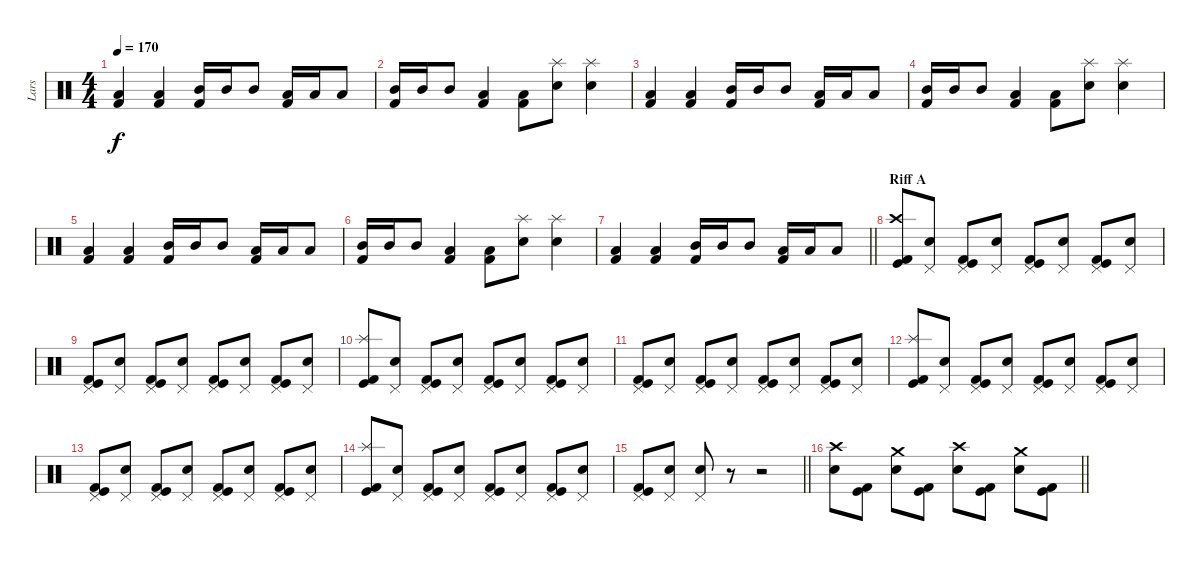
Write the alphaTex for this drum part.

\track ("Lars" "Lars") {instrument percussion}
\staff {score}
\articulation defaults
\ts (4 4)
\tempo 170
\clef neutral
\ks c
("Kick (hit) 2" "Low Tom (hit)").4{dy f} ("Kick (hit) 2" "Low Tom (hit)").4 ("Kick (hit) 2" "Mid Tom (hit)").16 "Mid Tom (hit)".16 "Mid Tom (hit)".8 ("Kick (hit) 2" "Low Tom (hit)").16 "Low Tom (hit)".16 "Low Tom (hit)".8 |
("Kick (hit) 2" "Mid Tom (hit)").16 "Mid Tom (hit)".16 "Mid Tom (hit)".8 ("Kick (hit) 2" "Low Tom (hit)").4 ("Kick (hit) 2" "Low Tom (hit)").8 ("Splash (hit)" "Electric Snare (hit)").8 ("Splash (hit)" "Electric Snare (hit)").4 |
("Kick (hit) 2" "Low Tom (hit)").4 ("Kick (hit) 2" "Low Tom (hit)").4 ("Kick (hit) 2" "Mid Tom (hit)").16 "Mid Tom (hit)".16 "Mid Tom (hit)".8 ("Kick (hit) 2" "Low Tom (hit)").16 "Low Tom (hit)".16 "Low Tom (hit)".8 |
("Kick (hit) 2" "Mid Tom (hit)").16 "Mid Tom (hit)".16 "Mid Tom (hit)".8 ("Kick (hit) 2" "Low Tom (hit)").4 ("Kick (hit) 2" "Low Tom (hit)").8 ("Splash (hit)" "Electric Snare (hit)").8 ("Splash (hit)" "Electric Snare (hit)").4 |
("Kick (hit) 2" "Low Tom (hit)").4 ("Kick (hit) 2" "Low Tom (hit)").4 ("Kick (hit) 2" "Mid Tom (hit)").16 "Mid Tom (hit)".16 "Mid Tom (hit)".8 ("Kick (hit) 2" "Low Tom (hit)").16 "Low Tom (hit)".16 "Low Tom (hit)".8 |
("Kick (hit) 2" "Mid Tom (hit)").16 "Mid Tom (hit)".16 "Mid Tom (hit)".8 ("Kick (hit) 2" "Low Tom (hit)").4 ("Kick (hit) 2" "Low Tom (hit)").8 ("Splash (hit)" "Electric Snare (hit)").8 ("Splash (hit)" "Electric Snare (hit)").4 |
\barLineRight lightlight
("Kick (hit) 2" "Low Tom (hit)").4 ("Kick (hit) 2" "Low Tom (hit)").4 ("Kick (hit) 2" "Mid Tom (hit)").16 "Mid Tom (hit)".16 "Mid Tom (hit)".8 ("Kick (hit) 2" "Low Tom (hit)").16 "Low Tom (hit)".16 "Low Tom (hit)".8 |
\section ("" "Riff A")
("Crash high (hit)" "Kick (hit)" "Kick (hit) 2").8 ("Pedal Hi-Hat (hit)" "Electric Snare (hit)").8 ("Pedal Hi-Hat (hit)" "Kick (hit)" "Kick (hit) 2").8 ("Pedal Hi-Hat (hit)" "Electric Snare (hit)").8 ("Pedal Hi-Hat (hit)" "Kick (hit)" "Kick (hit) 2").8 ("Pedal Hi-Hat (hit)" "Electric Snare (hit)").8 ("Pedal Hi-Hat (hit)" "Kick (hit)" "Kick (hit) 2").8 ("Pedal Hi-Hat (hit)" "Electric Snare (hit)").8 |
("Pedal Hi-Hat (hit)" "Kick (hit)" "Kick (hit) 2").8 ("Pedal Hi-Hat (hit)" "Electric Snare (hit)").8 ("Pedal Hi-Hat (hit)" "Kick (hit)" "Kick (hit) 2").8 ("Pedal Hi-Hat (hit)" "Electric Snare (hit)").8 ("Pedal Hi-Hat (hit)" "Kick (hit)" "Kick (hit) 2").8 ("Pedal Hi-Hat (hit)" "Electric Snare (hit)").8 ("Pedal Hi-Hat (hit)" "Kick (hit)" "Kick (hit) 2").8 ("Pedal Hi-Hat (hit)" "Electric Snare (hit)").8 |
("Splash (hit)" "Kick (hit)" "Kick (hit) 2").8 ("Pedal Hi-Hat (hit)" "Electric Snare (hit)").8 ("Pedal Hi-Hat (hit)" "Kick (hit)" "Kick (hit) 2").8 ("Pedal Hi-Hat (hit)" "Electric Snare (hit)").8 ("Pedal Hi-Hat (hit)" "Kick (hit)" "Kick (hit) 2").8 ("Pedal Hi-Hat (hit)" "Electric Snare (hit)").8 ("Pedal Hi-Hat (hit)" "Kick (hit)" "Kick (hit) 2").8 ("Pedal Hi-Hat (hit)" "Electric Snare (hit)").8 |
("Pedal Hi-Hat (hit)" "Kick (hit)" "Kick (hit) 2").8 ("Pedal Hi-Hat (hit)" "Electric Snare (hit)").8 ("Pedal Hi-Hat (hit)" "Kick (hit)" "Kick (hit) 2").8 ("Pedal Hi-Hat (hit)" "Electric Snare (hit)").8 ("Pedal Hi-Hat (hit)" "Kick (hit)" "Kick (hit) 2").8 ("Pedal Hi-Hat (hit)" "Electric Snare (hit)").8 ("Pedal Hi-Hat (hit)" "Kick (hit)" "Kick (hit) 2").8 ("Pedal Hi-Hat (hit)" "Electric Snare (hit)").8 |
("Splash (hit)" "Kick (hit)" "Kick (hit) 2").8 ("Pedal Hi-Hat (hit)" "Electric Snare (hit)").8 ("Pedal Hi-Hat (hit)" "Kick (hit)" "Kick (hit) 2").8 ("Pedal Hi-Hat (hit)" "Electric Snare (hit)").8 ("Pedal Hi-Hat (hit)" "Kick (hit)" "Kick (hit) 2").8 ("Pedal Hi-Hat (hit)" "Electric Snare (hit)").8 ("Pedal Hi-Hat (hit)" "Kick (hit)" "Kick (hit) 2").8 ("Pedal Hi-Hat (hit)" "Electric Snare (hit)").8 |
("Pedal Hi-Hat (hit)" "Kick (hit)" "Kick (hit) 2").8 ("Pedal Hi-Hat (hit)" "Electric Snare (hit)").8 ("Pedal Hi-Hat (hit)" "Kick (hit)" "Kick (hit) 2").8 ("Pedal Hi-Hat (hit)" "Electric Snare (hit)").8 ("Pedal Hi-Hat (hit)" "Kick (hit)" "Kick (hit) 2").8 ("Pedal Hi-Hat (hit)" "Electric Snare (hit)").8 ("Pedal Hi-Hat (hit)" "Kick (hit)" "Kick (hit) 2").8 ("Pedal Hi-Hat (hit)" "Electric Snare (hit)").8 |
("Splash (hit)" "Kick (hit)" "Kick (hit) 2").8 ("Pedal Hi-Hat (hit)" "Electric Snare (hit)").8 ("Pedal Hi-Hat (hit)" "Kick (hit)" "Kick (hit) 2").8 ("Pedal Hi-Hat (hit)" "Electric Snare (hit)").8 ("Pedal Hi-Hat (hit)" "Kick (hit)" "Kick (hit) 2").8 ("Pedal Hi-Hat (hit)" "Electric Snare (hit)").8 ("Pedal Hi-Hat (hit)" "Kick (hit)" "Kick (hit) 2").8 ("Pedal Hi-Hat (hit)" "Electric Snare (hit)").8 |
\barLineRight lightlight
("Pedal Hi-Hat (hit)" "Kick (hit)" "Kick (hit) 2").8 ("Pedal Hi-Hat (hit)" "Electric Snare (hit)").8 ("Pedal Hi-Hat (hit)" "Electric Snare (hit)").8 r.8 r.2 |
\section ("" "")
\barLineRight lightlight
("Crash high (hit)" "Electric Snare (hit)").8 ("Kick (hit)" "Kick (hit) 2").8 ("Crash medium (hit)" "Electric Snare (hit)").8 ("Kick (hit)" "Kick (hit) 2").8 ("Crash high (hit)" "Electric Snare (hit)").8 ("Kick (hit)" "Kick (hit) 2").8 ("Crash medium (hit)" "Electric Snare (hit)").8 ("Kick (hit)" "Kick (hit) 2").8
